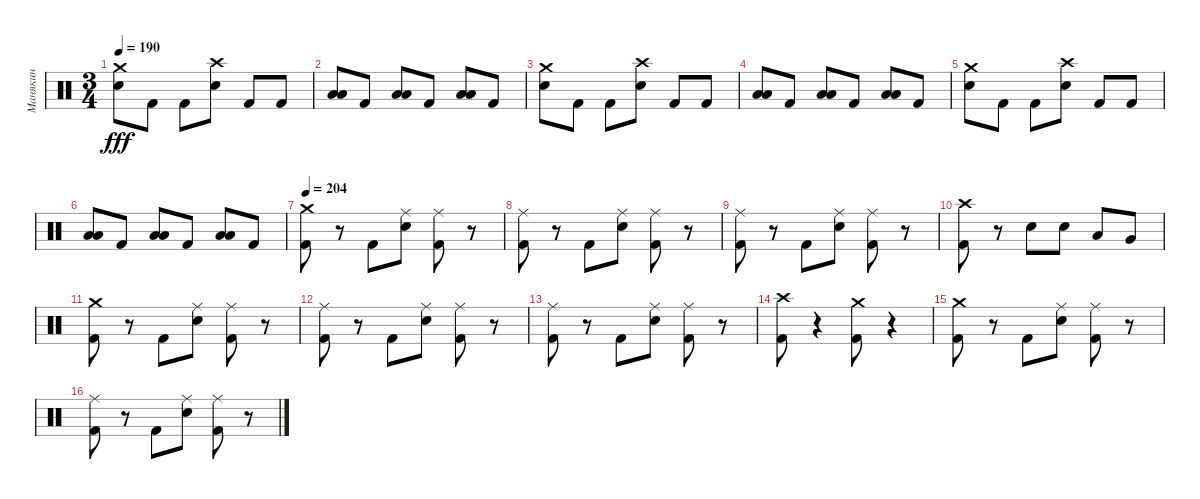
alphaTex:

\track ("Манякин" "Манякин") {instrument percussion}
\staff {score}
\articulation defaults
\ts (3 4)
\tempo 190
\clef neutral
\ks c
("Snare (hit) 2" "Crash medium (hit)").8{dy fff} "Kick (hit) 2".8 "Kick (hit) 2".8 ("Crash high (hit)" "Snare (hit) 2").8 "Kick (hit) 2".8 "Kick (hit) 2".8 |
("Low Tom (hit)" "Low Floor Tom (hit)").8 "Kick (hit) 2".8 ("Low Floor Tom (hit)" "Low Tom (hit)").8 "Kick (hit) 2".8 ("Low Floor Tom (hit)" "Low Tom (hit)").8 "Kick (hit) 2".8 |
("Snare (hit) 2" "Crash medium (hit)").8 "Kick (hit) 2".8 "Kick (hit) 2".8 ("Crash high (hit)" "Snare (hit) 2").8 "Kick (hit) 2".8 "Kick (hit) 2".8 |
("Low Tom (hit)" "Low Floor Tom (hit)").8 "Kick (hit) 2".8 ("Low Floor Tom (hit)" "Low Tom (hit)").8 "Kick (hit) 2".8 ("Low Floor Tom (hit)" "Low Tom (hit)").8 "Kick (hit) 2".8 |
("Snare (hit) 2" "Crash medium (hit)").8 "Kick (hit) 2".8 "Kick (hit) 2".8 ("Crash high (hit)" "Snare (hit) 2").8 "Kick (hit) 2".8 "Kick (hit) 2".8 |
("Low Tom (hit)" "Low Floor Tom (hit)").8 "Kick (hit) 2".8 ("Low Floor Tom (hit)" "Low Tom (hit)").8 "Kick (hit) 2".8 ("Low Floor Tom (hit)" "Low Tom (hit)").8 "Kick (hit) 2".8 |
\tempo 204
("Kick (hit) 2" "Crash medium (hit)").8 r.8 "Kick (hit) 2".8 ("Ride (middle)" "Snare (hit) 2").8 ("Ride (middle)" "Kick (hit) 2").8 r.8 |
("Ride (middle)" "Kick (hit) 2").8 r.8 "Kick (hit) 2".8 ("Ride (middle)" "Snare (hit) 2").8 ("Ride (middle)" "Kick (hit) 2").8 r.8 |
("Ride (middle)" "Kick (hit) 2").8 r.8 "Kick (hit) 2".8 ("Ride (middle)" "Snare (hit) 2").8 ("Ride (middle)" "Kick (hit) 2").8 r.8 |
("Kick (hit) 2" "Crash high (hit)").8 r.8 "Snare (hit) 2".8 "Snare (hit) 2".8 "Low Tom (hit)".8 "Very Low Tom (hit)".8 |
("Kick (hit) 2" "Crash medium (hit)").8 r.8 "Kick (hit) 2".8 ("Ride (middle)" "Snare (hit) 2").8 ("Ride (middle)" "Kick (hit) 2").8 r.8 |
("Ride (middle)" "Kick (hit) 2").8 r.8 "Kick (hit) 2".8 ("Ride (middle)" "Snare (hit) 2").8 ("Ride (middle)" "Kick (hit) 2").8 r.8 |
("Ride (middle)" "Kick (hit) 2").8 r.8 "Kick (hit) 2".8 ("Ride (middle)" "Snare (hit) 2").8 ("Ride (middle)" "Kick (hit) 2").8 r.8 |
("Crash high (hit)" "Kick (hit) 2").8 r.4 ("Kick (hit) 2" "Crash medium (hit)").8 r.4 |
("Kick (hit) 2" "Crash medium (hit)").8 r.8 "Kick (hit) 2".8 ("Ride (middle)" "Snare (hit) 2").8 ("Ride (middle)" "Kick (hit) 2").8 r.8 |
("Ride (middle)" "Kick (hit) 2").8 r.8 "Kick (hit) 2".8 ("Ride (middle)" "Snare (hit) 2").8 ("Ride (middle)" "Kick (hit) 2").8 r.8
